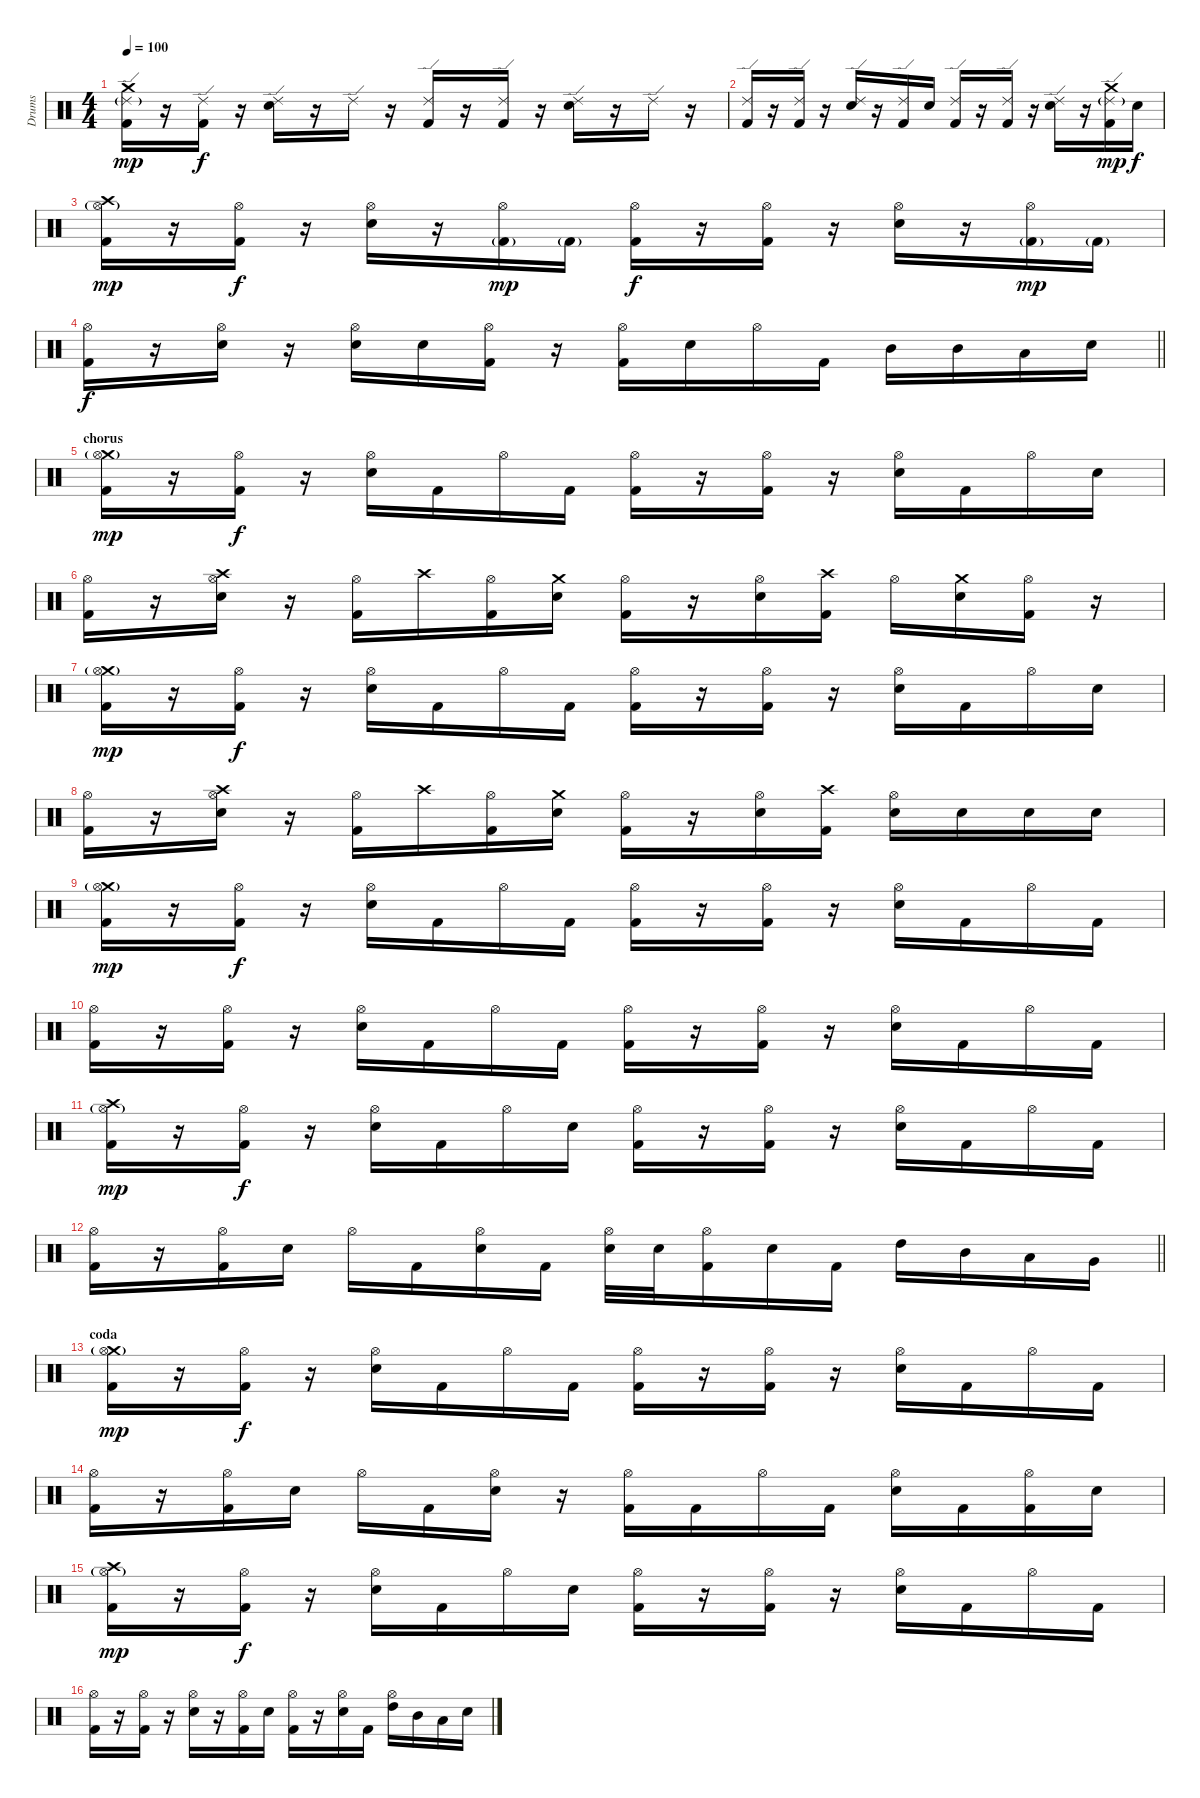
\track ("Drums" "Drums") {instrument percussion}
\staff {score}
\articulation defaults
\ts (4 4)
\tempo 100
\clef neutral
\ks c
("Crash medium (hit)" "Ride (edge) 2"{g} "Kick (hit) 2").16{dy mp} r.16 ("Ride (edge) 2" "Kick (hit) 2").16{dy f} r.16 ("Ride (edge) 2" "Snare (hit) 2").16 r.16 "Ride (edge) 2".16 r.16 ("Ride (edge) 2" "Kick (hit) 2").16 r.16 ("Ride (edge) 2" "Kick (hit) 2").16 r.16 ("Ride (edge) 2" "Snare (hit) 2").16 r.16 "Ride (edge) 2".16 r.16 |
("Ride (edge) 2" "Kick (hit) 2").16 r.16 ("Ride (edge) 2" "Kick (hit) 2").16 r.16 ("Ride (edge) 2" "Snare (hit) 2").16 r.16 ("Ride (edge) 2" "Kick (hit) 2").16 "Snare (hit) 2".16 ("Ride (edge) 2" "Kick (hit) 2").16 r.16 ("Ride (edge) 2" "Kick (hit) 2").16 r.16 ("Ride (edge) 2" "Snare (hit) 2").16 r.16 ("Crash medium (hit)" "Ride (edge) 2"{g} "Kick (hit) 2").16{dy mp} "Snare (hit) 2".16{dy f} |
("Crash high (hit)" "Hi-Hat (open)"{g} "Kick (hit) 2").16{dy mp} r.16 ("Hi-Hat (open)" "Kick (hit) 2").16{dy f} r.16 ("Hi-Hat (open)" "Snare (hit) 2").16 r.16 ("Hi-Hat (open)" "Kick (hit) 2"{g}).16{dy mp} "Kick (hit) 2"{g}.16 ("Hi-Hat (open)" "Kick (hit) 2").16{dy f} r.16 ("Hi-Hat (open)" "Kick (hit) 2").16 r.16 ("Hi-Hat (open)" "Snare (hit) 2").16 r.16 ("Hi-Hat (open)" "Kick (hit) 2"{g}).16{dy mp} "Kick (hit) 2"{g}.16 |
\barLineRight lightlight
("Hi-Hat (open)" "Kick (hit) 2").16{dy f} r.16 ("Hi-Hat (open)" "Snare (hit) 2").16 r.16 ("Hi-Hat (open)" "Snare (hit) 2").16 "Snare (hit) 2".16 ("Hi-Hat (open)" "Kick (hit) 2").16 r.16 ("Hi-Hat (open)" "Kick (hit) 2").16 "Snare (hit) 2".16 "Hi-Hat (open)".16 "Kick (hit) 2".16 "Mid Tom (hit)".16 "Mid Tom (hit)".16 "Low Floor Tom (hit)".16 "Snare (hit) 2".16 |
\section ("" "chorus")
("Crash medium (hit)" "Hi-Hat (open)"{g} "Kick (hit) 2").16{dy mp} r.16 ("Hi-Hat (open)" "Kick (hit) 2").16{dy f} r.16 ("Hi-Hat (open)" "Snare (hit) 2").16 "Kick (hit) 2".16 "Hi-Hat (open)".16 "Kick (hit) 2".16 ("Hi-Hat (open)" "Kick (hit) 2").16 r.16 ("Hi-Hat (open)" "Kick (hit) 2").16 r.16 ("Hi-Hat (open)" "Snare (hit) 2").16 "Kick (hit) 2".16 "Hi-Hat (open)".16 "Snare (hit) 2".16 |
("Hi-Hat (open)" "Kick (hit) 2").16 r.16 ("Crash high (hit)" "Hi-Hat (open)" "Snare (hit) 2").16 r.16 ("Hi-Hat (open)" "Kick (hit) 2").16 "Crash high (hit)".16 ("Hi-Hat (open)" "Kick (hit) 2").16 ("Crash medium (hit)" "Snare (hit) 2").16 ("Hi-Hat (open)" "Kick (hit) 2").16 r.16 ("Hi-Hat (open)" "Snare (hit) 2").16 ("Crash high (hit)" "Kick (hit) 2").16 "Hi-Hat (open)".16 ("Crash medium (hit)" "Snare (hit) 2").16 ("Hi-Hat (open)" "Kick (hit) 2").16 r.16 |
("Crash medium (hit)" "Hi-Hat (open)"{g} "Kick (hit) 2").16{dy mp} r.16 ("Hi-Hat (open)" "Kick (hit) 2").16{dy f} r.16 ("Hi-Hat (open)" "Snare (hit) 2").16 "Kick (hit) 2".16 "Hi-Hat (open)".16 "Kick (hit) 2".16 ("Hi-Hat (open)" "Kick (hit) 2").16 r.16 ("Hi-Hat (open)" "Kick (hit) 2").16 r.16 ("Hi-Hat (open)" "Snare (hit) 2").16 "Kick (hit) 2".16 "Hi-Hat (open)".16 "Snare (hit) 2".16 |
("Hi-Hat (open)" "Kick (hit) 2").16 r.16 ("Crash high (hit)" "Hi-Hat (open)" "Snare (hit) 2").16 r.16 ("Hi-Hat (open)" "Kick (hit) 2").16 "Crash high (hit)".16 ("Hi-Hat (open)" "Kick (hit) 2").16 ("Crash medium (hit)" "Snare (hit) 2").16 ("Hi-Hat (open)" "Kick (hit) 2").16 r.16 ("Hi-Hat (open)" "Snare (hit) 2").16 ("Crash high (hit)" "Kick (hit) 2").16 ("Hi-Hat (open)" "Snare (hit) 2").16 "Snare (hit) 2".16 "Snare (hit) 2".16 "Snare (hit) 2".16 |
("Crash medium (hit)" "Hi-Hat (open)"{g} "Kick (hit) 2").16{dy mp} r.16 ("Hi-Hat (open)" "Kick (hit) 2").16{dy f} r.16 ("Hi-Hat (open)" "Snare (hit) 2").16 "Kick (hit) 2".16 "Hi-Hat (open)".16 "Kick (hit) 2".16 ("Hi-Hat (open)" "Kick (hit) 2").16 r.16 ("Hi-Hat (open)" "Kick (hit) 2").16 r.16 ("Hi-Hat (open)" "Snare (hit) 2").16 "Kick (hit) 2".16 "Hi-Hat (open)".16 "Kick (hit) 2".16 |
("Hi-Hat (open)" "Kick (hit) 2").16 r.16 ("Hi-Hat (open)" "Kick (hit) 2").16 r.16 ("Hi-Hat (open)" "Snare (hit) 2").16 "Kick (hit) 2".16 "Hi-Hat (open)".16 "Kick (hit) 2".16 ("Hi-Hat (open)" "Kick (hit) 2").16 r.16 ("Hi-Hat (open)" "Kick (hit) 2").16 r.16 ("Hi-Hat (open)" "Snare (hit) 2").16 "Kick (hit) 2".16 "Hi-Hat (open)".16 "Kick (hit) 2".16 |
("Crash high (hit)" "Hi-Hat (open)"{g} "Kick (hit) 2").16{dy mp} r.16 ("Hi-Hat (open)" "Kick (hit) 2").16{dy f} r.16 ("Hi-Hat (open)" "Snare (hit) 2").16 "Kick (hit) 2".16 "Hi-Hat (open)".16 "Snare (hit) 2".16 ("Hi-Hat (open)" "Kick (hit) 2").16 r.16 ("Hi-Hat (open)" "Kick (hit) 2").16 r.16 ("Hi-Hat (open)" "Snare (hit) 2").16 "Kick (hit) 2".16 "Hi-Hat (open)".16 "Kick (hit) 2".16 |
\barLineRight lightlight
("Hi-Hat (open)" "Kick (hit) 2").16 r.16 ("Hi-Hat (open)" "Kick (hit) 2").16 "Snare (hit) 2".16 "Hi-Hat (open)".16 "Kick (hit) 2".16 ("Hi-Hat (open)" "Snare (hit) 2").16 "Kick (hit) 2".16 ("Hi-Hat (open)" "Snare (hit) 2").32 "Snare (hit) 2".32 ("Hi-Hat (open)" "Kick (hit) 2").16 "Snare (hit) 2".16 "Kick (hit) 2".16 "High Tom (hit)".16 "Mid Tom (hit)".16 "Low Tom (hit)".16 "Very Low Tom (hit)".16 |
\section ("" "coda")
("Crash medium (hit)" "Hi-Hat (open)"{g} "Kick (hit) 2").16{dy mp} r.16 ("Hi-Hat (open)" "Kick (hit) 2").16{dy f} r.16 ("Hi-Hat (open)" "Snare (hit) 2").16 "Kick (hit) 2".16 "Hi-Hat (open)".16 "Kick (hit) 2".16 ("Hi-Hat (open)" "Kick (hit) 2").16 r.16 ("Hi-Hat (open)" "Kick (hit) 2").16 r.16 ("Hi-Hat (open)" "Snare (hit) 2").16 "Kick (hit) 2".16 "Hi-Hat (open)".16 "Kick (hit) 2".16 |
("Hi-Hat (open)" "Kick (hit) 2").16 r.16 ("Hi-Hat (open)" "Kick (hit) 2").16 "Snare (hit) 2".16 "Hi-Hat (open)".16 "Kick (hit) 2".16 ("Hi-Hat (open)" "Snare (hit) 2").16 r.16 ("Hi-Hat (open)" "Kick (hit) 2").16 "Kick (hit) 2".16 "Hi-Hat (open)".16 "Kick (hit) 2".16 ("Hi-Hat (open)" "Snare (hit) 2").16 "Kick (hit) 2".16 ("Hi-Hat (open)" "Kick (hit) 2").16 "Snare (hit) 2".16 |
("Crash high (hit)" "Hi-Hat (open)"{g} "Kick (hit) 2").16{dy mp} r.16 ("Hi-Hat (open)" "Kick (hit) 2").16{dy f} r.16 ("Hi-Hat (open)" "Snare (hit) 2").16 "Kick (hit) 2".16 "Hi-Hat (open)".16 "Snare (hit) 2".16 ("Hi-Hat (open)" "Kick (hit) 2").16 r.16 ("Hi-Hat (open)" "Kick (hit) 2").16 r.16 ("Hi-Hat (open)" "Snare (hit) 2").16 "Kick (hit) 2".16 "Hi-Hat (open)".16 "Kick (hit) 2".16 |
("Hi-Hat (open)" "Kick (hit) 2").16 r.16 ("Hi-Hat (open)" "Kick (hit) 2").16 r.16 ("Hi-Hat (open)" "Snare (hit) 2").16 r.16 ("Hi-Hat (open)" "Kick (hit) 2").16 "Snare (hit) 2".16 ("Hi-Hat (open)" "Kick (hit) 2").16 r.16 ("Hi-Hat (open)" "Snare (hit) 2").16 "Kick (hit) 2".16 ("Hi-Hat (open)" "High Tom (hit)").16 "Mid Tom (hit)".16 "Low Tom (hit)".16 "Snare (hit) 2".16
